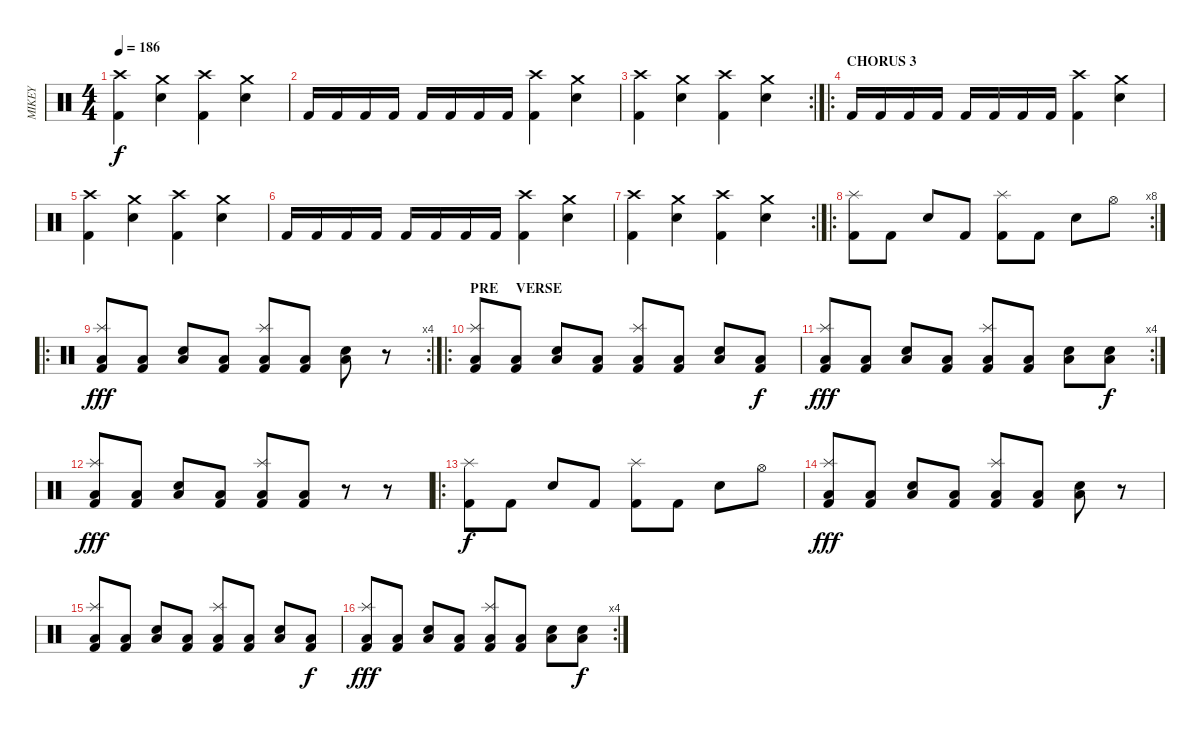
\track ("MIKEY" "MIKEY") {instrument percussion}
\staff {score}
\articulation defaults
\ts (4 4)
\tempo 186
\clef neutral
\ks c
("Crash high (hit)" "Kick (hit) 2").4{dy f} ("Crash medium (hit)" "Snare (hit) 2").4 ("Crash high (hit)" "Kick (hit) 2").4 ("Crash medium (hit)" "Snare (hit) 2").4 |
"Kick (hit) 2".16 "Kick (hit) 2".16 "Kick (hit) 2".16 "Kick (hit) 2".16 "Kick (hit) 2".16 "Kick (hit) 2".16 "Kick (hit) 2".16 "Kick (hit) 2".16 ("Crash high (hit)" "Kick (hit) 2").4 ("Crash medium (hit)" "Snare (hit) 2").4 |
\rc 2
("Crash high (hit)" "Kick (hit) 2").4 ("Crash medium (hit)" "Snare (hit) 2").4 ("Crash high (hit)" "Kick (hit) 2").4 ("Crash medium (hit)" "Snare (hit) 2").4 |
\ro
\section ("" "CHORUS 3")
"Kick (hit) 2".16 "Kick (hit) 2".16 "Kick (hit) 2".16 "Kick (hit) 2".16 "Kick (hit) 2".16 "Kick (hit) 2".16 "Kick (hit) 2".16 "Kick (hit) 2".16 ("Crash high (hit)" "Kick (hit) 2").4 ("Crash medium (hit)" "Snare (hit) 2").4 |
("Crash high (hit)" "Kick (hit) 2").4 ("Crash medium (hit)" "Snare (hit) 2").4 ("Crash high (hit)" "Kick (hit) 2").4 ("Crash medium (hit)" "Snare (hit) 2").4 |
"Kick (hit) 2".16 "Kick (hit) 2".16 "Kick (hit) 2".16 "Kick (hit) 2".16 "Kick (hit) 2".16 "Kick (hit) 2".16 "Kick (hit) 2".16 "Kick (hit) 2".16 ("Crash high (hit)" "Kick (hit) 2").4 ("Crash medium (hit)" "Snare (hit) 2").4 |
\rc 2
("Crash high (hit)" "Kick (hit) 2").4 ("Crash medium (hit)" "Snare (hit) 2").4 ("Crash high (hit)" "Kick (hit) 2").4 ("Crash medium (hit)" "Snare (hit) 2").4 |
\ro
\rc 8
("Splash (hit)" "Kick (hit) 2").8 "Kick (hit) 2".8 "Snare (hit) 2".8 "Kick (hit) 2".8 ("Splash (hit)" "Kick (hit) 2").8 "Kick (hit) 2".8 "Snare (hit) 2".8 "Hi-Hat (open)".8 |
\ro
\rc 4
("Low Floor Tom (hit)" "Splash (hit)" "Kick (hit) 2").8{dy fff} ("Low Floor Tom (hit)" "Kick (hit) 2").8 ("Low Floor Tom (hit)" "Snare (hit) 2").8 ("Low Floor Tom (hit)" "Kick (hit) 2").8 ("Low Floor Tom (hit)" "Splash (hit)" "Kick (hit) 2").8 ("Low Floor Tom (hit)" "Kick (hit) 2").8 ("Low Floor Tom (hit)" "Snare (hit) 2").8 r.8 |
\ro
\section ("" "PRE     VERSE")
("Low Floor Tom (hit)" "Splash (hit)" "Kick (hit) 2").8 ("Low Floor Tom (hit)" "Kick (hit) 2").8 ("Low Floor Tom (hit)" "Snare (hit) 2").8 ("Low Floor Tom (hit)" "Kick (hit) 2").8 ("Low Floor Tom (hit)" "Splash (hit)" "Kick (hit) 2").8 ("Low Floor Tom (hit)" "Kick (hit) 2").8 ("Low Floor Tom (hit)" "Snare (hit) 2").8 ("Low Floor Tom (hit)" "Kick (hit) 2").8{dy f} |
\rc 4
("Low Floor Tom (hit)" "Splash (hit)" "Kick (hit) 2").8{dy fff} ("Low Floor Tom (hit)" "Kick (hit) 2").8 ("Low Floor Tom (hit)" "Snare (hit) 2").8 ("Low Floor Tom (hit)" "Kick (hit) 2").8 ("Low Floor Tom (hit)" "Splash (hit)" "Kick (hit) 2").8 ("Low Floor Tom (hit)" "Kick (hit) 2").8 ("Low Floor Tom (hit)" "Snare (hit) 2").8 ("Low Floor Tom (hit)" "Snare (hit) 2").8{dy f} |
("Low Floor Tom (hit)" "Splash (hit)" "Kick (hit) 2").8{dy fff} ("Low Floor Tom (hit)" "Kick (hit) 2").8 ("Low Floor Tom (hit)" "Snare (hit) 2").8 ("Low Floor Tom (hit)" "Kick (hit) 2").8 ("Low Floor Tom (hit)" "Splash (hit)" "Kick (hit) 2").8 ("Low Floor Tom (hit)" "Kick (hit) 2").8 r.8 r.8 |
\ro
("Splash (hit)" "Kick (hit) 2").8{dy f} "Kick (hit) 2".8 "Snare (hit) 2".8 "Kick (hit) 2".8 ("Splash (hit)" "Kick (hit) 2").8 "Kick (hit) 2".8 "Snare (hit) 2".8 "Hi-Hat (open)".8 |
("Low Floor Tom (hit)" "Splash (hit)" "Kick (hit) 2").8{dy fff} ("Low Floor Tom (hit)" "Kick (hit) 2").8 ("Low Floor Tom (hit)" "Snare (hit) 2").8 ("Low Floor Tom (hit)" "Kick (hit) 2").8 ("Low Floor Tom (hit)" "Splash (hit)" "Kick (hit) 2").8 ("Low Floor Tom (hit)" "Kick (hit) 2").8 ("Low Floor Tom (hit)" "Snare (hit) 2").8 r.8 |
("Low Floor Tom (hit)" "Splash (hit)" "Kick (hit) 2").8 ("Low Floor Tom (hit)" "Kick (hit) 2").8 ("Low Floor Tom (hit)" "Snare (hit) 2").8 ("Low Floor Tom (hit)" "Kick (hit) 2").8 ("Low Floor Tom (hit)" "Splash (hit)" "Kick (hit) 2").8 ("Low Floor Tom (hit)" "Kick (hit) 2").8 ("Low Floor Tom (hit)" "Snare (hit) 2").8 ("Low Floor Tom (hit)" "Kick (hit) 2").8{dy f} |
\rc 4
("Low Floor Tom (hit)" "Splash (hit)" "Kick (hit) 2").8{dy fff} ("Low Floor Tom (hit)" "Kick (hit) 2").8 ("Low Floor Tom (hit)" "Snare (hit) 2").8 ("Low Floor Tom (hit)" "Kick (hit) 2").8 ("Low Floor Tom (hit)" "Splash (hit)" "Kick (hit) 2").8 ("Low Floor Tom (hit)" "Kick (hit) 2").8 ("Low Floor Tom (hit)" "Snare (hit) 2").8 ("Low Floor Tom (hit)" "Snare (hit) 2").8{dy f}
